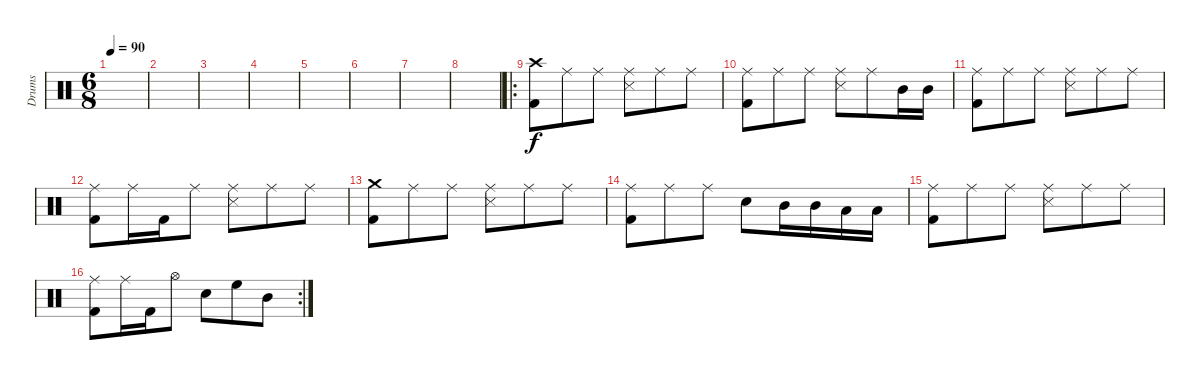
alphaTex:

\track ("Drums" "Drums") {instrument percussion}
\staff {score}
\articulation defaults
\ts (6 8)
\tempo 90
\clef neutral
\ks c
|
|
|
|
|
|
|
|
\ro
("Kick (hit) 2" "Crash high (hit)").8 "Ride (middle)".8 "Ride (middle)".8 ("Snare (side stick) 3" "Ride (middle)").8 "Ride (middle)".8 "Ride (middle)".8 |
("Kick (hit) 2" "Ride (middle)").8 "Ride (middle)".8 "Ride (middle)".8 ("Ride (middle)" "Snare (side stick) 3").8 "Ride (middle)".8 "Mid Tom (hit)".16 "Mid Tom (hit)".16 |
("Kick (hit) 2" "Ride (middle)").8 "Ride (middle)".8 "Ride (middle)".8 ("Ride (middle)" "Snare (side stick) 3").8 "Ride (middle)".8 "Ride (middle)".8 |
("Ride (middle)" "Kick (hit) 2").8 "Ride (middle)".16 "Kick (hit) 2".16 "Ride (middle)".8 ("Ride (middle)" "Snare (side stick) 3").8 "Ride (middle)".8 "Ride (middle)".8 |
("Crash medium (hit)" "Kick (hit) 2").8 "Ride (middle)".8 "Ride (middle)".8 ("Ride (middle)" "Snare (side stick) 3").8 "Ride (middle)".8 "Ride (middle)".8 |
("Ride (middle)" "Kick (hit) 2").8 "Ride (middle)".8 "Ride (middle)".8 "Snare (hit) 2".8 "Mid Tom (hit)".16 "Mid Tom (hit)".16 "Low Tom (hit)".16 "Low Tom (hit)".16 |
("Kick (hit) 2" "Ride (middle)").8 "Ride (middle)".8 "Ride (middle)".8 ("Ride (middle)" "Snare (side stick) 3").8 "Ride (middle)".8 "Ride (middle)".8 |
\rc 2
("Ride (middle)" "Kick (hit) 2").8 "Ride (middle)".16 "Kick (hit) 2".16 "Hi-Hat (open)".8 "Snare (hit) 2".8 "High Floor Tom (hit)".8 "Mid Tom (hit)".8
